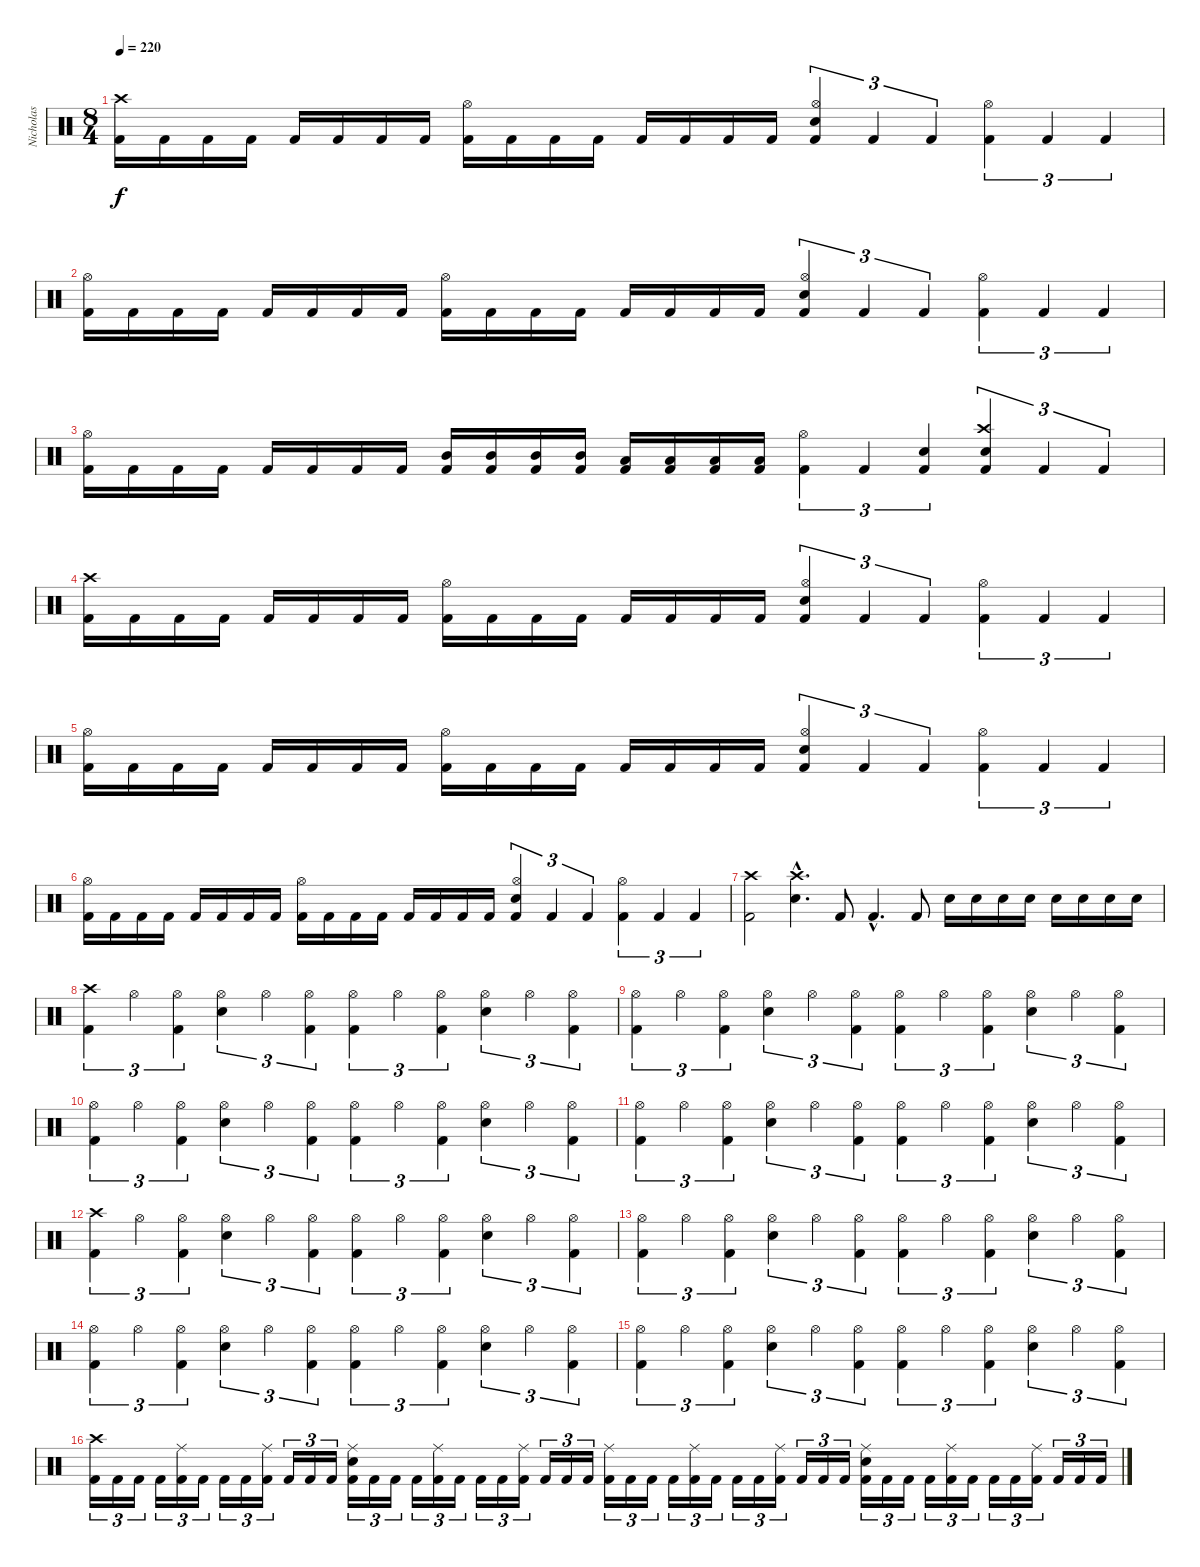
\track ("Nicholas" "Nicholas") {instrument percussion}
\staff {score}
\articulation defaults
\ts (8 4)
\tempo 220
\clef neutral
\ks c
("Kick (hit) 2" "Crash high (hit)").16{dy f} "Kick (hit) 2".16 "Kick (hit) 2".16 "Kick (hit) 2".16 "Kick (hit) 2".16 "Kick (hit) 2".16 "Kick (hit) 2".16 "Kick (hit) 2".16 ("Kick (hit) 2" "Hi-Hat (open)").16 "Kick (hit) 2".16 "Kick (hit) 2".16 "Kick (hit) 2".16 "Kick (hit) 2".16 "Kick (hit) 2".16 "Kick (hit) 2".16 "Kick (hit) 2".16 ("Kick (hit) 2" "Snare (hit) 2" "Hi-Hat (open)").4{tu (3 2)} "Kick (hit) 2".4{tu (3 2)} "Kick (hit) 2".4{tu (3 2)} ("Kick (hit) 2" "Hi-Hat (open)").4{tu (3 2)} "Kick (hit) 2".4{tu (3 2)} "Kick (hit) 2".4{tu (3 2)} |
("Kick (hit) 2" "Hi-Hat (open)").16 "Kick (hit) 2".16 "Kick (hit) 2".16 "Kick (hit) 2".16 "Kick (hit) 2".16 "Kick (hit) 2".16 "Kick (hit) 2".16 "Kick (hit) 2".16 ("Kick (hit) 2" "Hi-Hat (open)").16 "Kick (hit) 2".16 "Kick (hit) 2".16 "Kick (hit) 2".16 "Kick (hit) 2".16 "Kick (hit) 2".16 "Kick (hit) 2".16 "Kick (hit) 2".16 ("Kick (hit) 2" "Snare (hit) 2" "Hi-Hat (open)").4{tu (3 2)} "Kick (hit) 2".4{tu (3 2)} "Kick (hit) 2".4{tu (3 2)} ("Kick (hit) 2" "Hi-Hat (open)").4{tu (3 2)} "Kick (hit) 2".4{tu (3 2)} "Kick (hit) 2".4{tu (3 2)} |
("Kick (hit) 2" "Hi-Hat (open)").16 "Kick (hit) 2".16 "Kick (hit) 2".16 "Kick (hit) 2".16 "Kick (hit) 2".16 "Kick (hit) 2".16 "Kick (hit) 2".16 "Kick (hit) 2".16 ("Kick (hit) 2" "Mid Tom (hit)").16 ("Kick (hit) 2" "Mid Tom (hit)").16 ("Kick (hit) 2" "Mid Tom (hit)").16 ("Kick (hit) 2" "Mid Tom (hit)").16 ("Kick (hit) 2" "Low Tom (hit)").16 ("Kick (hit) 2" "Low Tom (hit)").16 ("Kick (hit) 2" "Low Tom (hit)").16 ("Kick (hit) 2" "Low Tom (hit)").16 ("Kick (hit) 2" "Hi-Hat (open)").4{tu (3 2)} "Kick (hit) 2".4{tu (3 2)} ("Kick (hit) 2" "Snare (hit) 2").4{tu (3 2)} ("Kick (hit) 2" "Snare (hit) 2" "Crash high (hit)").4{tu (3 2)} "Kick (hit) 2".4{tu (3 2)} "Kick (hit) 2".4{tu (3 2)} |
("Kick (hit) 2" "Crash high (hit)").16 "Kick (hit) 2".16 "Kick (hit) 2".16 "Kick (hit) 2".16 "Kick (hit) 2".16 "Kick (hit) 2".16 "Kick (hit) 2".16 "Kick (hit) 2".16 ("Kick (hit) 2" "Hi-Hat (open)").16 "Kick (hit) 2".16 "Kick (hit) 2".16 "Kick (hit) 2".16 "Kick (hit) 2".16 "Kick (hit) 2".16 "Kick (hit) 2".16 "Kick (hit) 2".16 ("Kick (hit) 2" "Snare (hit) 2" "Hi-Hat (open)").4{tu (3 2)} "Kick (hit) 2".4{tu (3 2)} "Kick (hit) 2".4{tu (3 2)} ("Kick (hit) 2" "Hi-Hat (open)").4{tu (3 2)} "Kick (hit) 2".4{tu (3 2)} "Kick (hit) 2".4{tu (3 2)} |
("Kick (hit) 2" "Hi-Hat (open)").16 "Kick (hit) 2".16 "Kick (hit) 2".16 "Kick (hit) 2".16 "Kick (hit) 2".16 "Kick (hit) 2".16 "Kick (hit) 2".16 "Kick (hit) 2".16 ("Kick (hit) 2" "Hi-Hat (open)").16 "Kick (hit) 2".16 "Kick (hit) 2".16 "Kick (hit) 2".16 "Kick (hit) 2".16 "Kick (hit) 2".16 "Kick (hit) 2".16 "Kick (hit) 2".16 ("Kick (hit) 2" "Snare (hit) 2" "Hi-Hat (open)").4{tu (3 2)} "Kick (hit) 2".4{tu (3 2)} "Kick (hit) 2".4{tu (3 2)} ("Kick (hit) 2" "Hi-Hat (open)").4{tu (3 2)} "Kick (hit) 2".4{tu (3 2)} "Kick (hit) 2".4{tu (3 2)} |
("Kick (hit) 2" "Hi-Hat (open)").16 "Kick (hit) 2".16 "Kick (hit) 2".16 "Kick (hit) 2".16 "Kick (hit) 2".16 "Kick (hit) 2".16 "Kick (hit) 2".16 "Kick (hit) 2".16 ("Kick (hit) 2" "Hi-Hat (open)").16 "Kick (hit) 2".16 "Kick (hit) 2".16 "Kick (hit) 2".16 "Kick (hit) 2".16 "Kick (hit) 2".16 "Kick (hit) 2".16 "Kick (hit) 2".16 ("Kick (hit) 2" "Snare (hit) 2" "Hi-Hat (open)").4{tu (3 2)} "Kick (hit) 2".4{tu (3 2)} "Kick (hit) 2".4{tu (3 2)} ("Kick (hit) 2" "Hi-Hat (open)").4{tu (3 2)} "Kick (hit) 2".4{tu (3 2)} "Kick (hit) 2".4{tu (3 2)} |
("Kick (hit) 2" "Crash high (hit)").2 ("Snare (hit) 2"{hac} "Crash high (hit)"{hac}).4{d} "Kick (hit) 2".8 "Kick (hit) 2"{hac}.4{d} "Kick (hit) 2".8 "Snare (hit) 2".16 "Snare (hit) 2".16 "Snare (hit) 2".16 "Snare (hit) 2".16 "Snare (hit) 2".16 "Snare (hit) 2".16 "Snare (hit) 2".16 "Snare (hit) 2".16 |
("Kick (hit) 2" "Crash high (hit)").4{tu (3 2)} "Hi-Hat (open)".4{tu (3 2)} ("Kick (hit) 2" "Hi-Hat (open)").4{tu (3 2)} ("Snare (hit) 2" "Hi-Hat (open)").4{tu (3 2)} "Hi-Hat (open)".4{tu (3 2)} ("Kick (hit) 2" "Hi-Hat (open)").4{tu (3 2)} ("Kick (hit) 2" "Hi-Hat (open)").4{tu (3 2)} "Hi-Hat (open)".4{tu (3 2)} ("Kick (hit) 2" "Hi-Hat (open)").4{tu (3 2)} ("Snare (hit) 2" "Hi-Hat (open)").4{tu (3 2)} "Hi-Hat (open)".4{tu (3 2)} ("Kick (hit) 2" "Hi-Hat (open)").4{tu (3 2)} |
("Kick (hit) 2" "Hi-Hat (open)").4{tu (3 2)} "Hi-Hat (open)".4{tu (3 2)} ("Kick (hit) 2" "Hi-Hat (open)").4{tu (3 2)} ("Snare (hit) 2" "Hi-Hat (open)").4{tu (3 2)} "Hi-Hat (open)".4{tu (3 2)} ("Kick (hit) 2" "Hi-Hat (open)").4{tu (3 2)} ("Kick (hit) 2" "Hi-Hat (open)").4{tu (3 2)} "Hi-Hat (open)".4{tu (3 2)} ("Kick (hit) 2" "Hi-Hat (open)").4{tu (3 2)} ("Snare (hit) 2" "Hi-Hat (open)").4{tu (3 2)} "Hi-Hat (open)".4{tu (3 2)} ("Kick (hit) 2" "Hi-Hat (open)").4{tu (3 2)} |
("Kick (hit) 2" "Hi-Hat (open)").4{tu (3 2)} "Hi-Hat (open)".4{tu (3 2)} ("Kick (hit) 2" "Hi-Hat (open)").4{tu (3 2)} ("Snare (hit) 2" "Hi-Hat (open)").4{tu (3 2)} "Hi-Hat (open)".4{tu (3 2)} ("Kick (hit) 2" "Hi-Hat (open)").4{tu (3 2)} ("Kick (hit) 2" "Hi-Hat (open)").4{tu (3 2)} "Hi-Hat (open)".4{tu (3 2)} ("Kick (hit) 2" "Hi-Hat (open)").4{tu (3 2)} ("Snare (hit) 2" "Hi-Hat (open)").4{tu (3 2)} "Hi-Hat (open)".4{tu (3 2)} ("Kick (hit) 2" "Hi-Hat (open)").4{tu (3 2)} |
("Kick (hit) 2" "Hi-Hat (open)").4{tu (3 2)} "Hi-Hat (open)".4{tu (3 2)} ("Kick (hit) 2" "Hi-Hat (open)").4{tu (3 2)} ("Snare (hit) 2" "Hi-Hat (open)").4{tu (3 2)} "Hi-Hat (open)".4{tu (3 2)} ("Kick (hit) 2" "Hi-Hat (open)").4{tu (3 2)} ("Kick (hit) 2" "Hi-Hat (open)").4{tu (3 2)} "Hi-Hat (open)".4{tu (3 2)} ("Kick (hit) 2" "Hi-Hat (open)").4{tu (3 2)} ("Snare (hit) 2" "Hi-Hat (open)").4{tu (3 2)} "Hi-Hat (open)".4{tu (3 2)} ("Kick (hit) 2" "Hi-Hat (open)").4{tu (3 2)} |
("Kick (hit) 2" "Crash high (hit)").4{tu (3 2)} "Hi-Hat (open)".4{tu (3 2)} ("Kick (hit) 2" "Hi-Hat (open)").4{tu (3 2)} ("Snare (hit) 2" "Hi-Hat (open)").4{tu (3 2)} "Hi-Hat (open)".4{tu (3 2)} ("Kick (hit) 2" "Hi-Hat (open)").4{tu (3 2)} ("Kick (hit) 2" "Hi-Hat (open)").4{tu (3 2)} "Hi-Hat (open)".4{tu (3 2)} ("Kick (hit) 2" "Hi-Hat (open)").4{tu (3 2)} ("Snare (hit) 2" "Hi-Hat (open)").4{tu (3 2)} "Hi-Hat (open)".4{tu (3 2)} ("Kick (hit) 2" "Hi-Hat (open)").4{tu (3 2)} |
("Kick (hit) 2" "Hi-Hat (open)").4{tu (3 2)} "Hi-Hat (open)".4{tu (3 2)} ("Kick (hit) 2" "Hi-Hat (open)").4{tu (3 2)} ("Snare (hit) 2" "Hi-Hat (open)").4{tu (3 2)} "Hi-Hat (open)".4{tu (3 2)} ("Kick (hit) 2" "Hi-Hat (open)").4{tu (3 2)} ("Kick (hit) 2" "Hi-Hat (open)").4{tu (3 2)} "Hi-Hat (open)".4{tu (3 2)} ("Kick (hit) 2" "Hi-Hat (open)").4{tu (3 2)} ("Snare (hit) 2" "Hi-Hat (open)").4{tu (3 2)} "Hi-Hat (open)".4{tu (3 2)} ("Kick (hit) 2" "Hi-Hat (open)").4{tu (3 2)} |
("Kick (hit) 2" "Hi-Hat (open)").4{tu (3 2)} "Hi-Hat (open)".4{tu (3 2)} ("Kick (hit) 2" "Hi-Hat (open)").4{tu (3 2)} ("Snare (hit) 2" "Hi-Hat (open)").4{tu (3 2)} "Hi-Hat (open)".4{tu (3 2)} ("Kick (hit) 2" "Hi-Hat (open)").4{tu (3 2)} ("Kick (hit) 2" "Hi-Hat (open)").4{tu (3 2)} "Hi-Hat (open)".4{tu (3 2)} ("Kick (hit) 2" "Hi-Hat (open)").4{tu (3 2)} ("Snare (hit) 2" "Hi-Hat (open)").4{tu (3 2)} "Hi-Hat (open)".4{tu (3 2)} ("Kick (hit) 2" "Hi-Hat (open)").4{tu (3 2)} |
("Kick (hit) 2" "Hi-Hat (open)").4{tu (3 2)} "Hi-Hat (open)".4{tu (3 2)} ("Kick (hit) 2" "Hi-Hat (open)").4{tu (3 2)} ("Snare (hit) 2" "Hi-Hat (open)").4{tu (3 2)} "Hi-Hat (open)".4{tu (3 2)} ("Kick (hit) 2" "Hi-Hat (open)").4{tu (3 2)} ("Kick (hit) 2" "Hi-Hat (open)").4{tu (3 2)} "Hi-Hat (open)".4{tu (3 2)} ("Kick (hit) 2" "Hi-Hat (open)").4{tu (3 2)} ("Snare (hit) 2" "Hi-Hat (open)").4{tu (3 2)} "Hi-Hat (open)".4{tu (3 2)} ("Kick (hit) 2" "Hi-Hat (open)").4{tu (3 2)} |
("Kick (hit) 2" "Crash high (hit)").16{tu (3 2)} "Kick (hit) 2".16{tu (3 2)} "Kick (hit) 2".16{tu (3 2)} "Kick (hit) 2".16{tu (3 2)} ("Kick (hit) 2" "Ride (middle)").16{tu (3 2)} "Kick (hit) 2".16{tu (3 2)} "Kick (hit) 2".16{tu (3 2)} "Kick (hit) 2".16{tu (3 2)} ("Kick (hit) 2" "Ride (middle)").16{tu (3 2)} "Kick (hit) 2".16{tu (3 2)} "Kick (hit) 2".16{tu (3 2)} "Kick (hit) 2".16{tu (3 2)} ("Kick (hit) 2" "Snare (hit) 2" "Ride (middle)").16{tu (3 2)} "Kick (hit) 2".16{tu (3 2)} "Kick (hit) 2".16{tu (3 2)} "Kick (hit) 2".16{tu (3 2)} ("Kick (hit) 2" "Ride (middle)").16{tu (3 2)} "Kick (hit) 2".16{tu (3 2)} "Kick (hit) 2".16{tu (3 2)} "Kick (hit) 2".16{tu (3 2)} ("Kick (hit) 2" "Ride (middle)").16{tu (3 2)} "Kick (hit) 2".16{tu (3 2)} "Kick (hit) 2".16{tu (3 2)} "Kick (hit) 2".16{tu (3 2)} ("Kick (hit) 2" "Ride (middle)").16{tu (3 2)} "Kick (hit) 2".16{tu (3 2)} "Kick (hit) 2".16{tu (3 2)} "Kick (hit) 2".16{tu (3 2)} ("Kick (hit) 2" "Ride (middle)").16{tu (3 2)} "Kick (hit) 2".16{tu (3 2)} "Kick (hit) 2".16{tu (3 2)} "Kick (hit) 2".16{tu (3 2)} ("Kick (hit) 2" "Ride (middle)").16{tu (3 2)} "Kick (hit) 2".16{tu (3 2)} "Kick (hit) 2".16{tu (3 2)} "Kick (hit) 2".16{tu (3 2)} ("Kick (hit) 2" "Snare (hit) 2" "Ride (middle)").16{tu (3 2)} "Kick (hit) 2".16{tu (3 2)} "Kick (hit) 2".16{tu (3 2)} "Kick (hit) 2".16{tu (3 2)} ("Kick (hit) 2" "Ride (middle)").16{tu (3 2)} "Kick (hit) 2".16{tu (3 2)} "Kick (hit) 2".16{tu (3 2)} "Kick (hit) 2".16{tu (3 2)} ("Kick (hit) 2" "Ride (middle)").16{tu (3 2)} "Kick (hit) 2".16{tu (3 2)} "Kick (hit) 2".16{tu (3 2)} "Kick (hit) 2".16{tu (3 2)}
